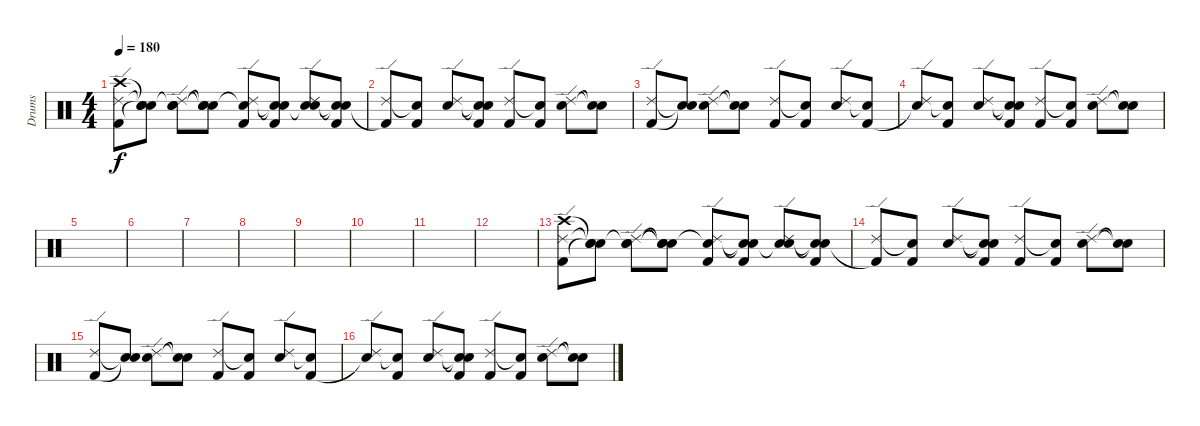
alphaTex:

\track ("Drums" "Drums") {instrument percussion}
\staff {score}
\articulation defaults
\ts (4 4)
\tempo 180
\clef neutral
\ks c
("Crash high (hit)" "Ride (edge) 2" "Kick (hit) 2").8{dy f} ("Snare (hit)"{t} "Snare (hit)"{t} "Snare (hit)"{t}).8 ("Snare (hit)"{t} "Ride (edge) 2" "Electric Snare (hit)").8 ("Snare (hit)"{t} "Snare (hit)"{t} "Snare (hit)"{t}).8 ("Snare (hit)"{t} "Ride (edge) 2" "Kick (hit) 2").8 ("Snare (hit)"{t} "Snare (hit)"{t} "Kick (hit) 2").8 ("Snare (hit)"{t} "Ride (edge) 2" "Electric Snare (hit)").8 ("Snare (hit)"{t} "Snare (hit)"{t} "Kick (hit) 2").8 |
("Ride (edge) 2" "Kick (hit) 2"{t}).8 ("Snare (hit)"{t} "Kick (hit) 2").8 ("Ride (edge) 2" "Electric Snare (hit)").8 ("Snare (hit)"{t} "Snare (hit)"{t} "Kick (hit) 2").8 ("Ride (edge) 2" "Kick (hit) 2").8 ("Snare (hit)"{t} "Kick (hit) 2").8 ("Ride (edge) 2" "Electric Snare (hit)").8 ("Snare (hit)"{t} "Snare (hit)"{t}).8 |
("Ride (edge) 2" "Kick (hit) 2").8 ("Snare (hit)"{t} "Snare (hit)"{t}).8 ("Ride (edge) 2" "Electric Snare (hit)").8 ("Snare (hit)"{t} "Snare (hit)"{t}).8 ("Ride (edge) 2" "Kick (hit) 2").8 ("Snare (hit)"{t} "Kick (hit) 2").8 ("Ride (edge) 2" "Electric Snare (hit)").8 ("Snare (hit)"{t} "Kick (hit) 2").8 |
("Ride (edge) 2" "Snare (hit)"{t}).8 ("Snare (hit)"{t} "Kick (hit) 2").8 ("Ride (edge) 2" "Electric Snare (hit)").8 ("Snare (hit)"{t} "Snare (hit)"{t} "Kick (hit) 2").8 ("Ride (edge) 2" "Kick (hit) 2").8 ("Snare (hit)"{t} "Kick (hit) 2").8 ("Ride (edge) 2" "Electric Snare (hit)").8 ("Snare (hit)"{t} "Snare (hit)"{t}).8 |
|
|
|
|
|
|
|
|
("Crash high (hit)" "Ride (edge) 2" "Kick (hit) 2").8 ("Snare (hit)"{t} "Snare (hit)"{t} "Snare (hit)"{t}).8 ("Snare (hit)"{t} "Ride (edge) 2" "Electric Snare (hit)").8 ("Snare (hit)"{t} "Snare (hit)"{t} "Snare (hit)"{t}).8 ("Snare (hit)"{t} "Ride (edge) 2" "Kick (hit) 2").8 ("Snare (hit)"{t} "Snare (hit)"{t} "Kick (hit) 2").8 ("Snare (hit)"{t} "Ride (edge) 2" "Electric Snare (hit)").8 ("Snare (hit)"{t} "Snare (hit)"{t} "Kick (hit) 2").8 |
("Ride (edge) 2" "Kick (hit) 2"{t}).8 ("Snare (hit)"{t} "Kick (hit) 2").8 ("Ride (edge) 2" "Electric Snare (hit)").8 ("Snare (hit)"{t} "Snare (hit)"{t} "Kick (hit) 2").8 ("Ride (edge) 2" "Kick (hit) 2").8 ("Snare (hit)"{t} "Kick (hit) 2").8 ("Ride (edge) 2" "Electric Snare (hit)").8 ("Snare (hit)"{t} "Snare (hit)"{t}).8 |
("Ride (edge) 2" "Kick (hit) 2").8 ("Snare (hit)"{t} "Snare (hit)"{t}).8 ("Ride (edge) 2" "Electric Snare (hit)").8 ("Snare (hit)"{t} "Snare (hit)"{t}).8 ("Ride (edge) 2" "Kick (hit) 2").8 ("Snare (hit)"{t} "Kick (hit) 2").8 ("Ride (edge) 2" "Electric Snare (hit)").8 ("Snare (hit)"{t} "Kick (hit) 2").8 |
("Ride (edge) 2" "Snare (hit)"{t}).8 ("Snare (hit)"{t} "Kick (hit) 2").8 ("Ride (edge) 2" "Electric Snare (hit)").8 ("Snare (hit)"{t} "Snare (hit)"{t} "Kick (hit) 2").8 ("Ride (edge) 2" "Kick (hit) 2").8 ("Snare (hit)"{t} "Kick (hit) 2").8 ("Ride (edge) 2" "Electric Snare (hit)").8 ("Snare (hit)"{t} "Snare (hit)"{t}).8
